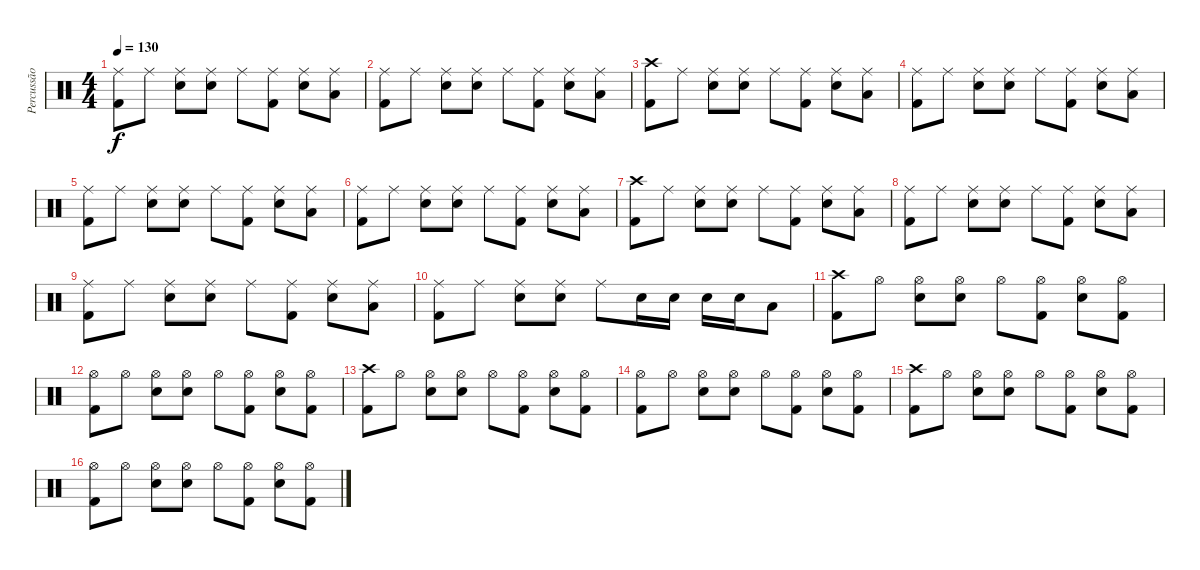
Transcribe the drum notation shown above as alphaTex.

\track ("Percussão" "Percussão") {instrument percussion}
\staff {score}
\articulation defaults
\ts (4 4)
\tempo 130
\clef neutral
\ks c
("Ride (middle)" "Kick (hit) 2").8{dy f} "Ride (middle)".8 ("Ride (middle)" "Electric Snare (hit)").8 ("Ride (middle)" "Electric Snare (hit)").8 "Ride (middle)".8 ("Ride (middle)" "Kick (hit) 2").8 ("Ride (middle)" "Electric Snare (hit)").8 ("Ride (middle)" "Low Tom (hit)").8 |
("Ride (middle)" "Kick (hit) 2").8 "Ride (middle)".8 ("Ride (middle)" "Electric Snare (hit)").8 ("Ride (middle)" "Electric Snare (hit)").8 "Ride (middle)".8 ("Ride (middle)" "Kick (hit) 2").8 ("Ride (middle)" "Electric Snare (hit)").8 ("Ride (middle)" "Low Tom (hit)").8 |
("Crash high (hit)" "Kick (hit) 2").8 "Ride (middle)".8 ("Ride (middle)" "Electric Snare (hit)").8 ("Ride (middle)" "Electric Snare (hit)").8 "Ride (middle)".8 ("Ride (middle)" "Kick (hit) 2").8 ("Ride (middle)" "Electric Snare (hit)").8 ("Ride (middle)" "Low Tom (hit)").8 |
("Ride (middle)" "Kick (hit) 2").8 "Ride (middle)".8 ("Ride (middle)" "Electric Snare (hit)").8 ("Ride (middle)" "Electric Snare (hit)").8 "Ride (middle)".8 ("Ride (middle)" "Kick (hit) 2").8 ("Ride (middle)" "Electric Snare (hit)").8 ("Ride (middle)" "Low Tom (hit)").8 |
("Ride (middle)" "Kick (hit) 2").8 "Ride (middle)".8 ("Ride (middle)" "Electric Snare (hit)").8 ("Ride (middle)" "Electric Snare (hit)").8 "Ride (middle)".8 ("Ride (middle)" "Kick (hit) 2").8 ("Ride (middle)" "Electric Snare (hit)").8 ("Ride (middle)" "Low Tom (hit)").8 |
("Ride (middle)" "Kick (hit) 2").8 "Ride (middle)".8 ("Ride (middle)" "Electric Snare (hit)").8 ("Ride (middle)" "Electric Snare (hit)").8 "Ride (middle)".8 ("Ride (middle)" "Kick (hit) 2").8 ("Ride (middle)" "Electric Snare (hit)").8 ("Ride (middle)" "Low Tom (hit)").8 |
("Crash high (hit)" "Kick (hit) 2").8 "Ride (middle)".8 ("Ride (middle)" "Electric Snare (hit)").8 ("Ride (middle)" "Electric Snare (hit)").8 "Ride (middle)".8 ("Ride (middle)" "Kick (hit) 2").8 ("Ride (middle)" "Electric Snare (hit)").8 ("Ride (middle)" "Low Tom (hit)").8 |
("Ride (middle)" "Kick (hit) 2").8 "Ride (middle)".8 ("Ride (middle)" "Electric Snare (hit)").8 ("Ride (middle)" "Electric Snare (hit)").8 "Ride (middle)".8 ("Ride (middle)" "Kick (hit) 2").8 ("Ride (middle)" "Electric Snare (hit)").8 ("Ride (middle)" "Low Tom (hit)").8 |
("Ride (middle)" "Kick (hit) 2").8 "Ride (middle)".8 ("Ride (middle)" "Electric Snare (hit)").8 ("Ride (middle)" "Electric Snare (hit)").8 "Ride (middle)".8 ("Ride (middle)" "Kick (hit) 2").8 ("Ride (middle)" "Electric Snare (hit)").8 ("Ride (middle)" "Low Tom (hit)").8 |
("Ride (middle)" "Kick (hit) 2").8 "Ride (middle)".8 ("Ride (middle)" "Electric Snare (hit)").8 ("Ride (middle)" "Electric Snare (hit)").8 "Ride (middle)".8 "Electric Snare (hit)".16 "Electric Snare (hit)".16 "Electric Snare (hit)".16 "Electric Snare (hit)".16 "Low Tom (hit)".8 |
("Crash high (hit)" "Kick (hit) 2").8 "Hi-Hat (open)".8 ("Hi-Hat (open)" "Electric Snare (hit)").8 ("Hi-Hat (open)" "Electric Snare (hit)").8 "Hi-Hat (open)".8 ("Hi-Hat (open)" "Kick (hit) 2").8 ("Hi-Hat (open)" "Electric Snare (hit)").8 ("Hi-Hat (open)" "Kick (hit) 2").8 |
("Hi-Hat (open)" "Kick (hit) 2").8 "Hi-Hat (open)".8 ("Hi-Hat (open)" "Electric Snare (hit)").8 ("Hi-Hat (open)" "Electric Snare (hit)").8 "Hi-Hat (open)".8 ("Hi-Hat (open)" "Kick (hit) 2").8 ("Hi-Hat (open)" "Electric Snare (hit)").8 ("Hi-Hat (open)" "Kick (hit) 2").8 |
("Crash high (hit)" "Kick (hit) 2").8 "Hi-Hat (open)".8 ("Hi-Hat (open)" "Electric Snare (hit)").8 ("Hi-Hat (open)" "Electric Snare (hit)").8 "Hi-Hat (open)".8 ("Hi-Hat (open)" "Kick (hit) 2").8 ("Hi-Hat (open)" "Electric Snare (hit)").8 ("Hi-Hat (open)" "Kick (hit) 2").8 |
("Hi-Hat (open)" "Kick (hit) 2").8 "Hi-Hat (open)".8 ("Hi-Hat (open)" "Electric Snare (hit)").8 ("Hi-Hat (open)" "Electric Snare (hit)").8 "Hi-Hat (open)".8 ("Hi-Hat (open)" "Kick (hit) 2").8 ("Hi-Hat (open)" "Electric Snare (hit)").8 ("Hi-Hat (open)" "Kick (hit) 2").8 |
("Crash high (hit)" "Kick (hit) 2").8 "Hi-Hat (open)".8 ("Hi-Hat (open)" "Electric Snare (hit)").8 ("Hi-Hat (open)" "Electric Snare (hit)").8 "Hi-Hat (open)".8 ("Hi-Hat (open)" "Kick (hit) 2").8 ("Hi-Hat (open)" "Electric Snare (hit)").8 ("Hi-Hat (open)" "Kick (hit) 2").8 |
("Hi-Hat (open)" "Kick (hit) 2").8 "Hi-Hat (open)".8 ("Hi-Hat (open)" "Electric Snare (hit)").8 ("Hi-Hat (open)" "Electric Snare (hit)").8 "Hi-Hat (open)".8 ("Hi-Hat (open)" "Kick (hit) 2").8 ("Hi-Hat (open)" "Electric Snare (hit)").8 ("Hi-Hat (open)" "Kick (hit) 2").8
